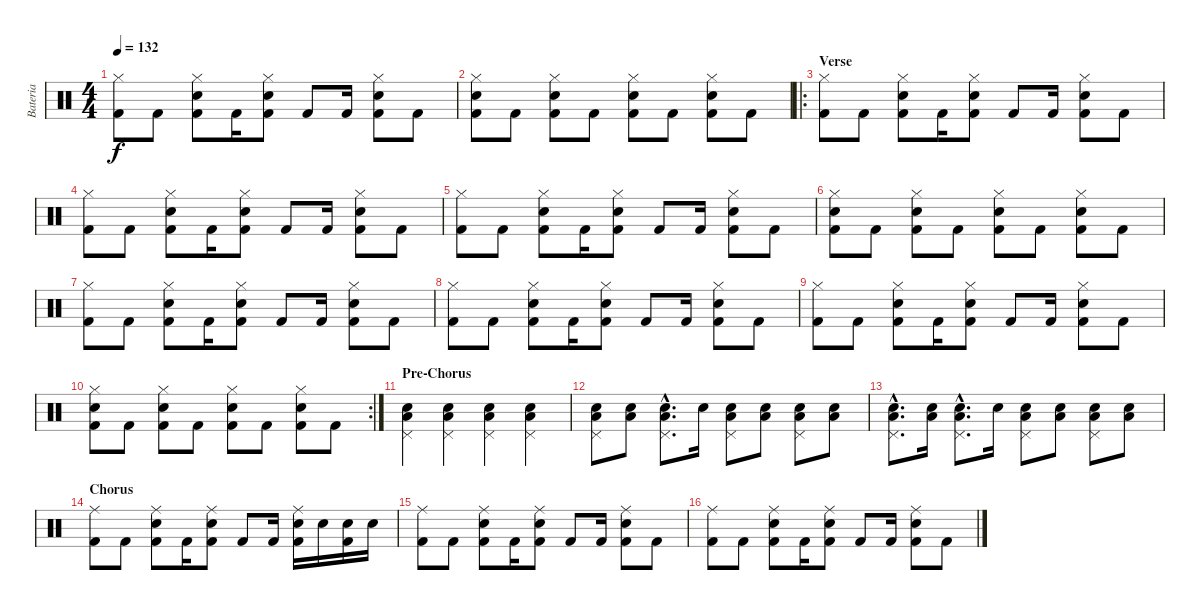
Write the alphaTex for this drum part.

\track ("Bateria" "Bateria") {instrument percussion}
\staff {score}
\articulation defaults
\ts (4 4)
\tempo 132
\clef neutral
\ks c
("Hi-Hat (closed)" "Kick (hit) 2").8{dy f} "Kick (hit) 2".8 ("Hi-Hat (closed)" "Kick (hit) 2" "Electric Snare (hit)").8 "Kick (hit) 2".16 ("Hi-Hat (closed)" "Kick (hit) 2" "Electric Snare (hit)").8 "Kick (hit) 2".8 "Kick (hit) 2".16 ("Hi-Hat (closed)" "Kick (hit) 2" "Electric Snare (hit)").8 "Kick (hit) 2".8 |
("Hi-Hat (closed)" "Kick (hit) 2" "Electric Snare (hit)").8 "Kick (hit) 2".8 ("Hi-Hat (closed)" "Kick (hit) 2" "Electric Snare (hit)").8 "Kick (hit) 2".8 ("Hi-Hat (closed)" "Kick (hit) 2" "Electric Snare (hit)").8 "Kick (hit) 2".8 ("Hi-Hat (closed)" "Kick (hit) 2" "Electric Snare (hit)").8 "Kick (hit) 2".8 |
\ro
\section ("" "Verse")
("Hi-Hat (closed)" "Kick (hit) 2").8 "Kick (hit) 2".8 ("Hi-Hat (closed)" "Kick (hit) 2" "Electric Snare (hit)").8 "Kick (hit) 2".16 ("Hi-Hat (closed)" "Kick (hit) 2" "Electric Snare (hit)").8 "Kick (hit) 2".8 "Kick (hit) 2".16 ("Hi-Hat (closed)" "Kick (hit) 2" "Electric Snare (hit)").8 "Kick (hit) 2".8 |
("Hi-Hat (closed)" "Kick (hit) 2").8 "Kick (hit) 2".8 ("Hi-Hat (closed)" "Kick (hit) 2" "Electric Snare (hit)").8 "Kick (hit) 2".16 ("Hi-Hat (closed)" "Kick (hit) 2" "Electric Snare (hit)").8 "Kick (hit) 2".8 "Kick (hit) 2".16 ("Hi-Hat (closed)" "Kick (hit) 2" "Electric Snare (hit)").8 "Kick (hit) 2".8 |
("Hi-Hat (closed)" "Kick (hit) 2").8 "Kick (hit) 2".8 ("Hi-Hat (closed)" "Kick (hit) 2" "Electric Snare (hit)").8 "Kick (hit) 2".16 ("Hi-Hat (closed)" "Kick (hit) 2" "Electric Snare (hit)").8 "Kick (hit) 2".8 "Kick (hit) 2".16 ("Hi-Hat (closed)" "Kick (hit) 2" "Electric Snare (hit)").8 "Kick (hit) 2".8 |
("Hi-Hat (closed)" "Kick (hit) 2" "Electric Snare (hit)").8 "Kick (hit) 2".8 ("Hi-Hat (closed)" "Kick (hit) 2" "Electric Snare (hit)").8 "Kick (hit) 2".8 ("Hi-Hat (closed)" "Kick (hit) 2" "Electric Snare (hit)").8 "Kick (hit) 2".8 ("Hi-Hat (closed)" "Kick (hit) 2" "Electric Snare (hit)").8 "Kick (hit) 2".8 |
("Hi-Hat (closed)" "Kick (hit) 2").8 "Kick (hit) 2".8 ("Hi-Hat (closed)" "Kick (hit) 2" "Electric Snare (hit)").8 "Kick (hit) 2".16 ("Hi-Hat (closed)" "Kick (hit) 2" "Electric Snare (hit)").8 "Kick (hit) 2".8 "Kick (hit) 2".16 ("Hi-Hat (closed)" "Kick (hit) 2" "Electric Snare (hit)").8 "Kick (hit) 2".8 |
("Hi-Hat (closed)" "Kick (hit) 2").8 "Kick (hit) 2".8 ("Hi-Hat (closed)" "Kick (hit) 2" "Electric Snare (hit)").8 "Kick (hit) 2".16 ("Hi-Hat (closed)" "Kick (hit) 2" "Electric Snare (hit)").8 "Kick (hit) 2".8 "Kick (hit) 2".16 ("Hi-Hat (closed)" "Kick (hit) 2" "Electric Snare (hit)").8 "Kick (hit) 2".8 |
("Hi-Hat (closed)" "Kick (hit) 2").8 "Kick (hit) 2".8 ("Hi-Hat (closed)" "Kick (hit) 2" "Electric Snare (hit)").8 "Kick (hit) 2".16 ("Hi-Hat (closed)" "Kick (hit) 2" "Electric Snare (hit)").8 "Kick (hit) 2".8 "Kick (hit) 2".16 ("Hi-Hat (closed)" "Kick (hit) 2" "Electric Snare (hit)").8 "Kick (hit) 2".8 |
\rc 2
("Hi-Hat (closed)" "Kick (hit) 2" "Electric Snare (hit)").8 "Kick (hit) 2".8 ("Hi-Hat (closed)" "Kick (hit) 2" "Electric Snare (hit)").8 "Kick (hit) 2".8 ("Hi-Hat (closed)" "Kick (hit) 2" "Electric Snare (hit)").8 "Kick (hit) 2".8 ("Hi-Hat (closed)" "Kick (hit) 2" "Electric Snare (hit)").8 "Kick (hit) 2".8 |
\section ("" "Pre-Chorus")
("Pedal Hi-Hat (hit)" "Electric Snare (hit)" "Low Floor Tom (hit)").4 ("Pedal Hi-Hat (hit)" "Electric Snare (hit)" "Low Floor Tom (hit)").4 ("Pedal Hi-Hat (hit)" "Electric Snare (hit)" "Low Floor Tom (hit)").4 ("Pedal Hi-Hat (hit)" "Electric Snare (hit)" "Low Floor Tom (hit)").4 |
("Pedal Hi-Hat (hit)" "Electric Snare (hit)" "Low Floor Tom (hit)").8 ("Electric Snare (hit)" "Low Floor Tom (hit)").8 ("Pedal Hi-Hat (hit)"{hac} "Electric Snare (hit)"{hac} "Low Floor Tom (hit)"{hac}).8{d} "Electric Snare (hit)".16 ("Pedal Hi-Hat (hit)" "Electric Snare (hit)" "Low Floor Tom (hit)").8 ("Electric Snare (hit)" "Low Floor Tom (hit)").8 ("Pedal Hi-Hat (hit)" "Electric Snare (hit)" "Low Floor Tom (hit)").8 ("Electric Snare (hit)" "Low Floor Tom (hit)").8 |
("Pedal Hi-Hat (hit)"{hac} "Electric Snare (hit)"{hac} "Low Floor Tom (hit)"{hac}).8{d} ("Electric Snare (hit)" "Low Floor Tom (hit)").16 ("Pedal Hi-Hat (hit)"{hac} "Electric Snare (hit)"{hac} "Low Floor Tom (hit)"{hac}).8{d} "Electric Snare (hit)".16 ("Pedal Hi-Hat (hit)" "Electric Snare (hit)" "Low Floor Tom (hit)").8 ("Electric Snare (hit)" "Low Floor Tom (hit)").8 ("Pedal Hi-Hat (hit)" "Electric Snare (hit)" "Low Floor Tom (hit)").8 ("Electric Snare (hit)" "Low Floor Tom (hit)").8 |
\section ("" "Chorus")
("Ride (middle)" "Kick (hit) 2").8 "Kick (hit) 2".8 ("Ride (middle)" "Kick (hit) 2" "Electric Snare (hit)").8 "Kick (hit) 2".16 ("Ride (middle)" "Kick (hit) 2" "Electric Snare (hit)").8 "Kick (hit) 2".8 "Kick (hit) 2".16 ("Ride (middle)" "Kick (hit) 2" "Electric Snare (hit)").16 "Electric Snare (hit)".16 ("Kick (hit) 2" "Electric Snare (hit)").16 "Electric Snare (hit)".16 |
("Ride (middle)" "Kick (hit) 2").8 "Kick (hit) 2".8 ("Ride (middle)" "Kick (hit) 2" "Electric Snare (hit)").8 "Kick (hit) 2".16 ("Ride (middle)" "Kick (hit) 2" "Electric Snare (hit)").8 "Kick (hit) 2".8 "Kick (hit) 2".16 ("Ride (middle)" "Kick (hit) 2" "Electric Snare (hit)").8 "Kick (hit) 2".8 |
("Ride (middle)" "Kick (hit) 2").8 "Kick (hit) 2".8 ("Ride (middle)" "Kick (hit) 2" "Electric Snare (hit)").8 "Kick (hit) 2".16 ("Ride (middle)" "Kick (hit) 2" "Electric Snare (hit)").8 "Kick (hit) 2".8 "Kick (hit) 2".16 ("Ride (middle)" "Kick (hit) 2" "Electric Snare (hit)").8 "Kick (hit) 2".8
